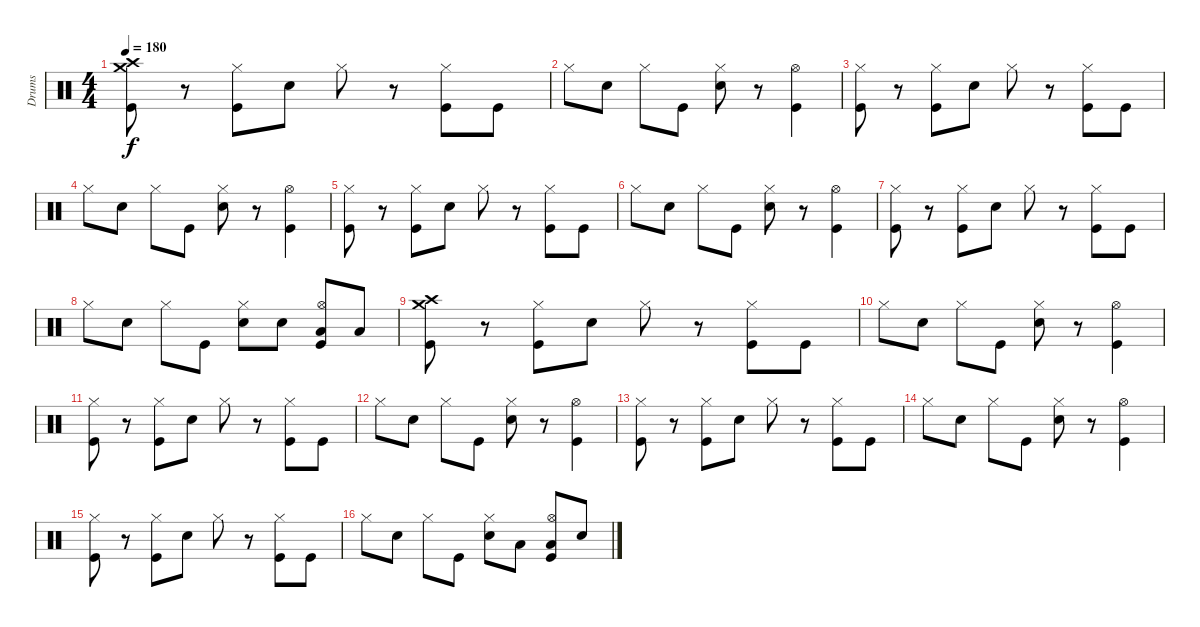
\track ("Drums" "Drums") {instrument percussion}
\staff {score}
\articulation defaults
\ts (4 4)
\tempo 180
\clef neutral
\ks c
("Crash medium (hit)" "Crash high (hit)" "Kick (hit)").8{dy f} r.8 ("Hi-Hat (closed)" "Kick (hit)").8 "Snare (hit) 2".8 "Hi-Hat (closed)".8 r.8 ("Hi-Hat (closed)" "Kick (hit)").8 "Kick (hit)".8 |
"Hi-Hat (closed)".8 "Snare (hit) 2".8 "Hi-Hat (closed)".8 "Kick (hit)".8 ("Hi-Hat (closed)" "Snare (hit) 2").8 r.8 ("Hi-Hat (open)" "Kick (hit)").4 |
("Hi-Hat (closed)" "Kick (hit)").8 r.8 ("Hi-Hat (closed)" "Kick (hit)").8 "Snare (hit) 2".8 "Hi-Hat (closed)".8 r.8 ("Hi-Hat (closed)" "Kick (hit)").8 "Kick (hit)".8 |
"Hi-Hat (closed)".8 "Snare (hit) 2".8 "Hi-Hat (closed)".8 "Kick (hit)".8 ("Hi-Hat (closed)" "Snare (hit) 2").8 r.8 ("Hi-Hat (open)" "Kick (hit)").4 |
("Hi-Hat (closed)" "Kick (hit)").8 r.8 ("Hi-Hat (closed)" "Kick (hit)").8 "Snare (hit) 2".8 "Hi-Hat (closed)".8 r.8 ("Hi-Hat (closed)" "Kick (hit)").8 "Kick (hit)".8 |
"Hi-Hat (closed)".8 "Snare (hit) 2".8 "Hi-Hat (closed)".8 "Kick (hit)".8 ("Hi-Hat (closed)" "Snare (hit) 2").8 r.8 ("Hi-Hat (open)" "Kick (hit)").4 |
("Hi-Hat (closed)" "Kick (hit)").8 r.8 ("Hi-Hat (closed)" "Kick (hit)").8 "Snare (hit) 2".8 "Hi-Hat (closed)".8 r.8 ("Hi-Hat (closed)" "Kick (hit)").8 "Kick (hit)".8 |
"Hi-Hat (closed)".8 "Snare (hit) 2".8 "Hi-Hat (closed)".8 "Kick (hit)".8 ("Hi-Hat (closed)" "Snare (hit) 2").8 "Snare (hit) 2".8 ("Low Tom (hit)" "Hi-Hat (open)" "Kick (hit)").8 "Low Tom (hit)".8 |
("Crash medium (hit)" "Crash high (hit)" "Kick (hit)").8 r.8 ("Hi-Hat (closed)" "Kick (hit)").8 "Snare (hit) 2".8 "Hi-Hat (closed)".8 r.8 ("Hi-Hat (closed)" "Kick (hit)").8 "Kick (hit)".8 |
"Hi-Hat (closed)".8 "Snare (hit) 2".8 "Hi-Hat (closed)".8 "Kick (hit)".8 ("Hi-Hat (closed)" "Snare (hit) 2").8 r.8 ("Hi-Hat (open)" "Kick (hit)").4 |
("Hi-Hat (closed)" "Kick (hit)").8 r.8 ("Hi-Hat (closed)" "Kick (hit)").8 "Snare (hit) 2".8 "Hi-Hat (closed)".8 r.8 ("Hi-Hat (closed)" "Kick (hit)").8 "Kick (hit)".8 |
"Hi-Hat (closed)".8 "Snare (hit) 2".8 "Hi-Hat (closed)".8 "Kick (hit)".8 ("Hi-Hat (closed)" "Snare (hit) 2").8 r.8 ("Hi-Hat (open)" "Kick (hit)").4 |
("Hi-Hat (closed)" "Kick (hit)").8 r.8 ("Hi-Hat (closed)" "Kick (hit)").8 "Snare (hit) 2".8 "Hi-Hat (closed)".8 r.8 ("Hi-Hat (closed)" "Kick (hit)").8 "Kick (hit)".8 |
"Hi-Hat (closed)".8 "Snare (hit) 2".8 "Hi-Hat (closed)".8 "Kick (hit)".8 ("Hi-Hat (closed)" "Snare (hit) 2").8 r.8 ("Hi-Hat (open)" "Kick (hit)").4 |
("Hi-Hat (closed)" "Kick (hit)").8 r.8 ("Hi-Hat (closed)" "Kick (hit)").8 "Snare (hit) 2".8 "Hi-Hat (closed)".8 r.8 ("Hi-Hat (closed)" "Kick (hit)").8 "Kick (hit)".8 |
"Hi-Hat (closed)".8 "Snare (hit) 2".8 "Hi-Hat (closed)".8 "Kick (hit)".8 ("Hi-Hat (closed)" "Snare (hit) 2").8 "Low Tom (hit)".8 ("Low Tom (hit)" "Hi-Hat (open)" "Kick (hit)").8 "Snare (hit) 2".8
